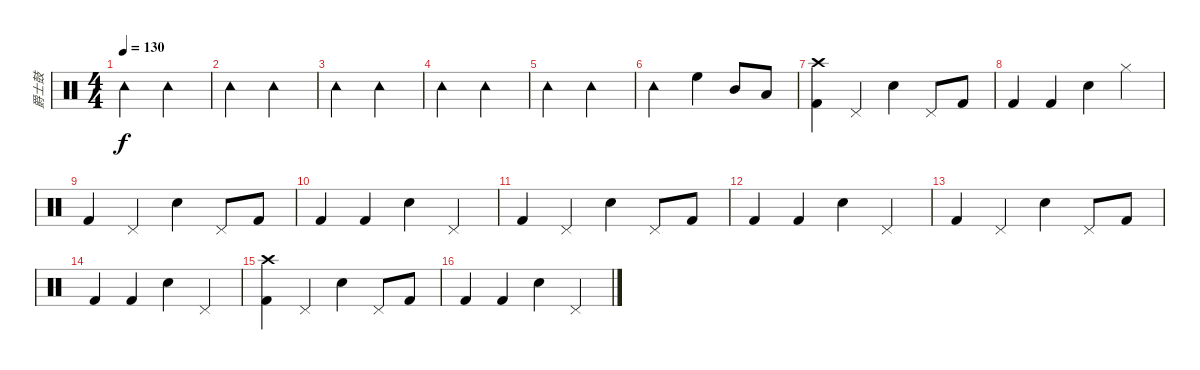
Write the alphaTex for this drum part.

\track ("爵士鼓" "爵士鼓") {instrument percussion}
\staff {score}
\articulation defaults
\ts (4 4)
\tempo 130
\clef neutral
\ks c "Tambourine (hit)".2{dy f} "Tambourine (hit)".2
|
"Tambourine (hit)".2 "Tambourine (hit)".2 |
"Tambourine (hit)".2 "Tambourine (hit)".2 |
"Tambourine (hit)".2 "Tambourine (hit)".2 |
"Tambourine (hit)".2 "Tambourine (hit)".2 |
"Tambourine (hit)".2 "High Floor Tom (hit)".4 "Mid Tom (hit)".8 "Low Tom (hit)".8 |
("Crash high (hit)" "Kick (hit) 2").4 "Pedal Hi-Hat (hit)".4 "Snare (hit) 2".4 "Pedal Hi-Hat (hit)".8 "Kick (hit) 2".8 |
"Kick (hit) 2".4 "Kick (hit) 2".4 "Snare (hit) 2".4 "Hi-Hat (closed)".4 |
"Kick (hit) 2".4 "Pedal Hi-Hat (hit)".4 "Snare (hit) 2".4 "Pedal Hi-Hat (hit)".8 "Kick (hit) 2".8 |
"Kick (hit) 2".4 "Kick (hit) 2".4 "Snare (hit) 2".4 "Pedal Hi-Hat (hit)".4 |
"Kick (hit) 2".4 "Pedal Hi-Hat (hit)".4 "Snare (hit) 2".4 "Pedal Hi-Hat (hit)".8 "Kick (hit) 2".8 |
"Kick (hit) 2".4 "Kick (hit) 2".4 "Snare (hit) 2".4 "Pedal Hi-Hat (hit)".4 |
"Kick (hit) 2".4 "Pedal Hi-Hat (hit)".4 "Snare (hit) 2".4 "Pedal Hi-Hat (hit)".8 "Kick (hit) 2".8 |
"Kick (hit) 2".4 "Kick (hit) 2".4 "Snare (hit) 2".4 "Pedal Hi-Hat (hit)".4 |
("Crash high (hit)" "Kick (hit) 2").4 "Pedal Hi-Hat (hit)".4 "Snare (hit) 2".4 "Pedal Hi-Hat (hit)".8 "Kick (hit) 2".8 |
"Kick (hit) 2".4 "Kick (hit) 2".4 "Snare (hit) 2".4 "Pedal Hi-Hat (hit)".4
